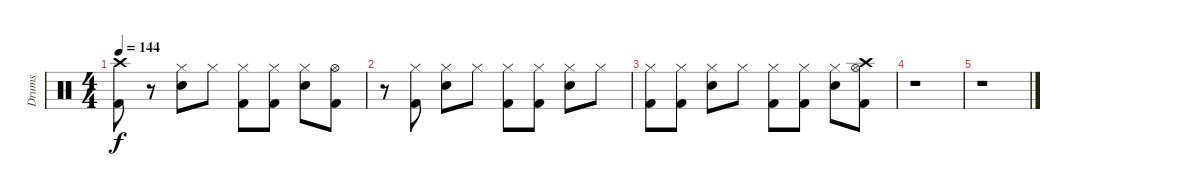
\track ("Drums" "Drums") {instrument percussion}
\staff {score}
\articulation defaults
\ts (4 4)
\tempo 144
\clef neutral
\ks c
("Crash high (hit)" "Kick (hit) 2").8{dy f} r.8 ("Hi-Hat (closed)" "Snare (hit) 2").8 "Hi-Hat (closed)".8 ("Hi-Hat (closed)" "Kick (hit) 2").8 ("Hi-Hat (closed)" "Kick (hit) 2").8 ("Hi-Hat (closed)" "Snare (hit) 2").8 ("Hi-Hat (open)" "Kick (hit) 2").8 |
r.8 ("Hi-Hat (closed)" "Kick (hit) 2").8 ("Hi-Hat (closed)" "Snare (hit) 2").8 "Hi-Hat (closed)".8 ("Hi-Hat (closed)" "Kick (hit) 2").8 ("Hi-Hat (closed)" "Kick (hit) 2").8 ("Hi-Hat (closed)" "Snare (hit) 2").8 "Hi-Hat (closed)".8 |
("Hi-Hat (closed)" "Kick (hit) 2").8 ("Hi-Hat (closed)" "Kick (hit) 2").8 ("Hi-Hat (closed)" "Snare (hit) 2").8 "Hi-Hat (closed)".8 ("Hi-Hat (closed)" "Kick (hit) 2").8 ("Hi-Hat (closed)" "Kick (hit) 2").8 ("Hi-Hat (closed)" "Snare (hit) 2").8 ("Crash high (hit)" "Hi-Hat (open)" "Kick (hit) 2").8 |
r.1 |
r.1
